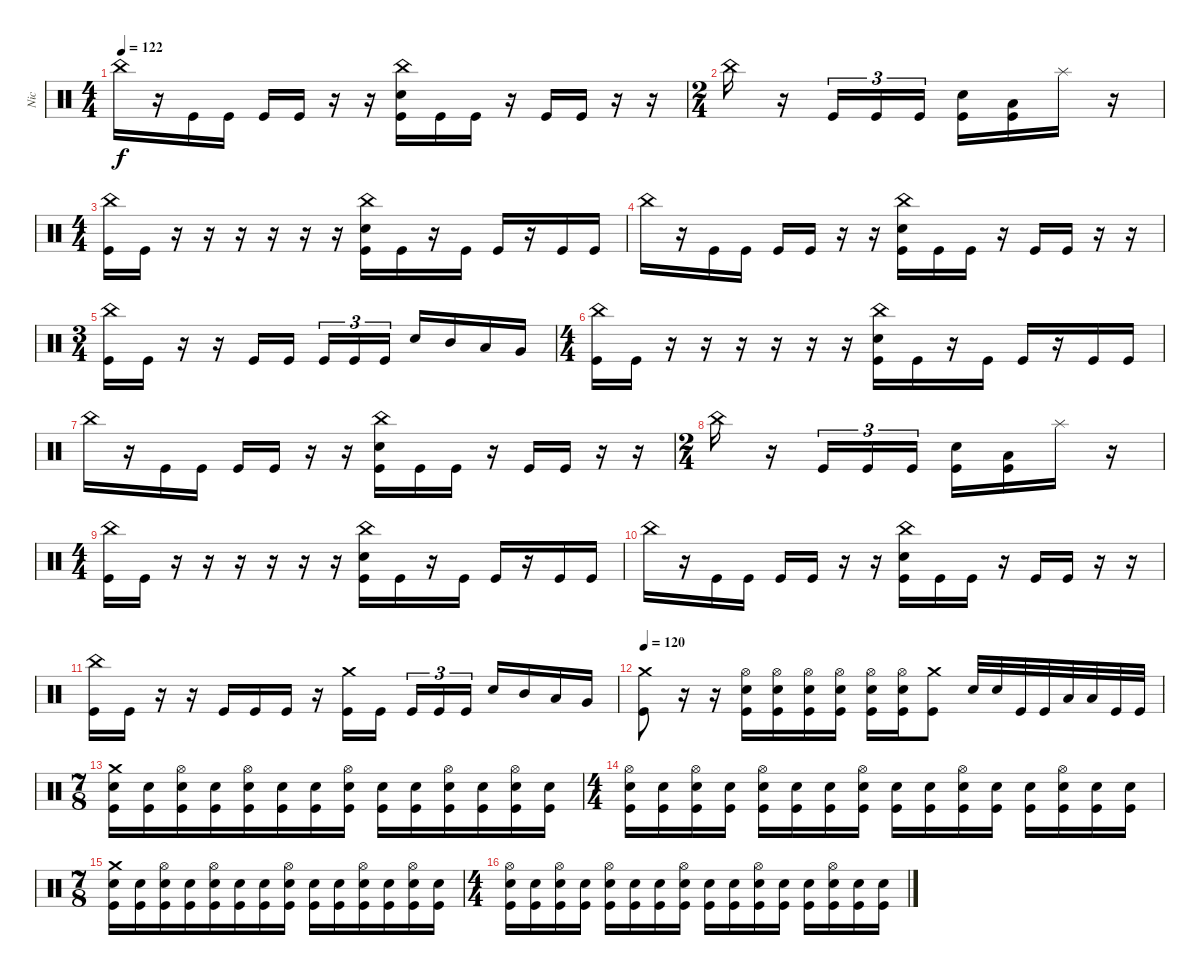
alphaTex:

\track ("Nic" "Nic") {instrument percussion}
\staff {score}
\articulation defaults
\ts (4 4)
\tempo 122
\clef neutral
\ks c "China (hit)".16{dy f}
r.16 "Kick (hit)".16 "Kick (hit)".16 "Kick (hit)".16 "Kick (hit)".16 r.16 r.16 ("China (hit)" "Snare (hit) 2" "Kick (hit)").16 "Kick (hit)".16 "Kick (hit)".16 r.16 "Kick (hit)".16 "Kick (hit)".16 r.16 r.16 |
\ts (2 4)
"China (hit)".16 r.16 "Kick (hit)".16{tu (3 2)} "Kick (hit)".16{tu (3 2)} "Kick (hit)".16{tu (3 2)} ("Snare (hit) 2" "Kick (hit)").16 ("Low Tom (hit)" "Kick (hit)").16 "Splash (hit)".16 r.16 |
\ts (4 4)
("China (hit)" "Kick (hit)").16 "Kick (hit)".16 r.16 r.16 r.16 r.16 r.16 r.16 ("China (hit)" "Snare (hit) 2" "Kick (hit)").16 "Kick (hit)".16 r.16 "Kick (hit)".16 "Kick (hit)".16 r.16 "Kick (hit)".16 "Kick (hit)".16 |
"China (hit)".16 r.16 "Kick (hit)".16 "Kick (hit)".16 "Kick (hit)".16 "Kick (hit)".16 r.16 r.16 ("China (hit)" "Snare (hit) 2" "Kick (hit)").16 "Kick (hit)".16 "Kick (hit)".16 r.16 "Kick (hit)".16 "Kick (hit)".16 r.16 r.16 |
\ts (3 4)
("China (hit)" "Kick (hit)").16 "Kick (hit)".16 r.16 r.16 "Kick (hit)".16 "Kick (hit)".16{beam splitsecondary} "Kick (hit)".16{tu (3 2)} "Kick (hit)".16{tu (3 2)} "Kick (hit)".16{tu (3 2)} "Snare (hit) 2".16 "Mid Tom (hit)".16 "Low Tom (hit)".16 "Very Low Tom (hit)".16 |
\ts (4 4)
("China (hit)" "Kick (hit)").16 "Kick (hit)".16 r.16 r.16 r.16 r.16 r.16 r.16 ("China (hit)" "Snare (hit) 2" "Kick (hit)").16 "Kick (hit)".16 r.16 "Kick (hit)".16 "Kick (hit)".16 r.16 "Kick (hit)".16 "Kick (hit)".16 |
"China (hit)".16 r.16 "Kick (hit)".16 "Kick (hit)".16 "Kick (hit)".16 "Kick (hit)".16 r.16 r.16 ("China (hit)" "Snare (hit) 2" "Kick (hit)").16 "Kick (hit)".16 "Kick (hit)".16 r.16 "Kick (hit)".16 "Kick (hit)".16 r.16 r.16 |
\ts (2 4)
"China (hit)".16 r.16 "Kick (hit)".16{tu (3 2)} "Kick (hit)".16{tu (3 2)} "Kick (hit)".16{tu (3 2)} ("Snare (hit) 2" "Kick (hit)").16 ("Low Tom (hit)" "Kick (hit)").16 "Splash (hit)".16 r.16 |
\ts (4 4)
("China (hit)" "Kick (hit)").16 "Kick (hit)".16 r.16 r.16 r.16 r.16 r.16 r.16 ("China (hit)" "Snare (hit) 2" "Kick (hit)").16 "Kick (hit)".16 r.16 "Kick (hit)".16 "Kick (hit)".16 r.16 "Kick (hit)".16 "Kick (hit)".16 |
"China (hit)".16 r.16 "Kick (hit)".16 "Kick (hit)".16 "Kick (hit)".16 "Kick (hit)".16 r.16 r.16 ("China (hit)" "Snare (hit) 2" "Kick (hit)").16 "Kick (hit)".16 "Kick (hit)".16 r.16 "Kick (hit)".16 "Kick (hit)".16 r.16 r.16 |
("China (hit)" "Kick (hit)").16 "Kick (hit)".16 r.16 r.16 "Kick (hit)".16 "Kick (hit)".16 "Kick (hit)".16 r.16 ("Crash medium (hit)" "Kick (hit)").16 "Kick (hit)".16{beam splitsecondary} "Kick (hit)".16{tu (3 2)} "Kick (hit)".16{tu (3 2)} "Kick (hit)".16{tu (3 2)} "Snare (hit) 2".16 "Mid Tom (hit)".16 "Low Tom (hit)".16 "Very Low Tom (hit)".16 |
\tempo 120
("Crash medium (hit)" "Kick (hit)").8 r.16 r.16 ("Hi-Hat (open)" "Kick (hit)" "Snare (hit) 2").16 ("Hi-Hat (open)" "Kick (hit)" "Snare (hit) 2").16 ("Hi-Hat (open)" "Kick (hit)" "Snare (hit) 2").16 ("Hi-Hat (open)" "Kick (hit)" "Snare (hit) 2").16 ("Hi-Hat (open)" "Kick (hit)" "Snare (hit) 2").16 ("Hi-Hat (open)" "Kick (hit)" "Snare (hit) 2").16 ("Crash medium (hit)" "Kick (hit)").8 "Snare (hit) 2".32 "Snare (hit) 2".32 "Kick (hit)".32 "Kick (hit)".32 "Low Tom (hit)".32 "Low Tom (hit)".32 "Kick (hit)".32 "Kick (hit)".32 |
\ts (7 8)
("Crash medium (hit)" "Snare (hit) 2" "Kick (hit)").16 ("Snare (hit) 2" "Kick (hit)").16 ("Hi-Hat (open)" "Snare (hit) 2" "Kick (hit)").16 ("Snare (hit) 2" "Kick (hit)").16 ("Hi-Hat (open)" "Snare (hit) 2" "Kick (hit)").16 ("Snare (hit) 2" "Kick (hit)").16 ("Snare (hit) 2" "Kick (hit)").16 ("Hi-Hat (open)" "Snare (hit) 2" "Kick (hit)").16 ("Snare (hit) 2" "Kick (hit)").16 ("Snare (hit) 2" "Kick (hit)").16 ("Hi-Hat (open)" "Snare (hit) 2" "Kick (hit)").16 ("Snare (hit) 2" "Kick (hit)").16 ("Hi-Hat (open)" "Snare (hit) 2" "Kick (hit)").16 ("Snare (hit) 2" "Kick (hit)").16 |
\ts (4 4)
("Hi-Hat (open)" "Snare (hit) 2" "Kick (hit)").16 ("Snare (hit) 2" "Kick (hit)").16 ("Hi-Hat (open)" "Snare (hit) 2" "Kick (hit)").16 ("Snare (hit) 2" "Kick (hit)").16 ("Hi-Hat (open)" "Snare (hit) 2" "Kick (hit)").16 ("Snare (hit) 2" "Kick (hit)").16 ("Snare (hit) 2" "Kick (hit)").16 ("Hi-Hat (open)" "Snare (hit) 2" "Kick (hit)").16 ("Snare (hit) 2" "Kick (hit)").16 ("Snare (hit) 2" "Kick (hit)").16 ("Hi-Hat (open)" "Snare (hit) 2" "Kick (hit)").16 ("Snare (hit) 2" "Kick (hit)").16 ("Snare (hit) 2" "Kick (hit)").16 ("Hi-Hat (open)" "Snare (hit) 2" "Kick (hit)").16 ("Snare (hit) 2" "Kick (hit)").16 ("Snare (hit) 2" "Kick (hit)").16 |
\ts (7 8)
("Crash medium (hit)" "Snare (hit) 2" "Kick (hit)").16 ("Snare (hit) 2" "Kick (hit)").16 ("Hi-Hat (open)" "Snare (hit) 2" "Kick (hit)").16 ("Snare (hit) 2" "Kick (hit)").16 ("Hi-Hat (open)" "Snare (hit) 2" "Kick (hit)").16 ("Snare (hit) 2" "Kick (hit)").16 ("Snare (hit) 2" "Kick (hit)").16 ("Hi-Hat (open)" "Snare (hit) 2" "Kick (hit)").16 ("Snare (hit) 2" "Kick (hit)").16 ("Snare (hit) 2" "Kick (hit)").16 ("Hi-Hat (open)" "Snare (hit) 2" "Kick (hit)").16 ("Snare (hit) 2" "Kick (hit)").16 ("Hi-Hat (open)" "Snare (hit) 2" "Kick (hit)").16 ("Snare (hit) 2" "Kick (hit)").16 |
\ts (4 4)
("Hi-Hat (open)" "Snare (hit) 2" "Kick (hit)").16 ("Snare (hit) 2" "Kick (hit)").16 ("Hi-Hat (open)" "Snare (hit) 2" "Kick (hit)").16 ("Snare (hit) 2" "Kick (hit)").16 ("Hi-Hat (open)" "Snare (hit) 2" "Kick (hit)").16 ("Snare (hit) 2" "Kick (hit)").16 ("Snare (hit) 2" "Kick (hit)").16 ("Hi-Hat (open)" "Snare (hit) 2" "Kick (hit)").16 ("Snare (hit) 2" "Kick (hit)").16 ("Snare (hit) 2" "Kick (hit)").16 ("Hi-Hat (open)" "Snare (hit) 2" "Kick (hit)").16 ("Snare (hit) 2" "Kick (hit)").16 ("Snare (hit) 2" "Kick (hit)").16 ("Hi-Hat (open)" "Snare (hit) 2" "Kick (hit)").16 ("Snare (hit) 2" "Kick (hit)").16 ("Snare (hit) 2" "Kick (hit)").16
